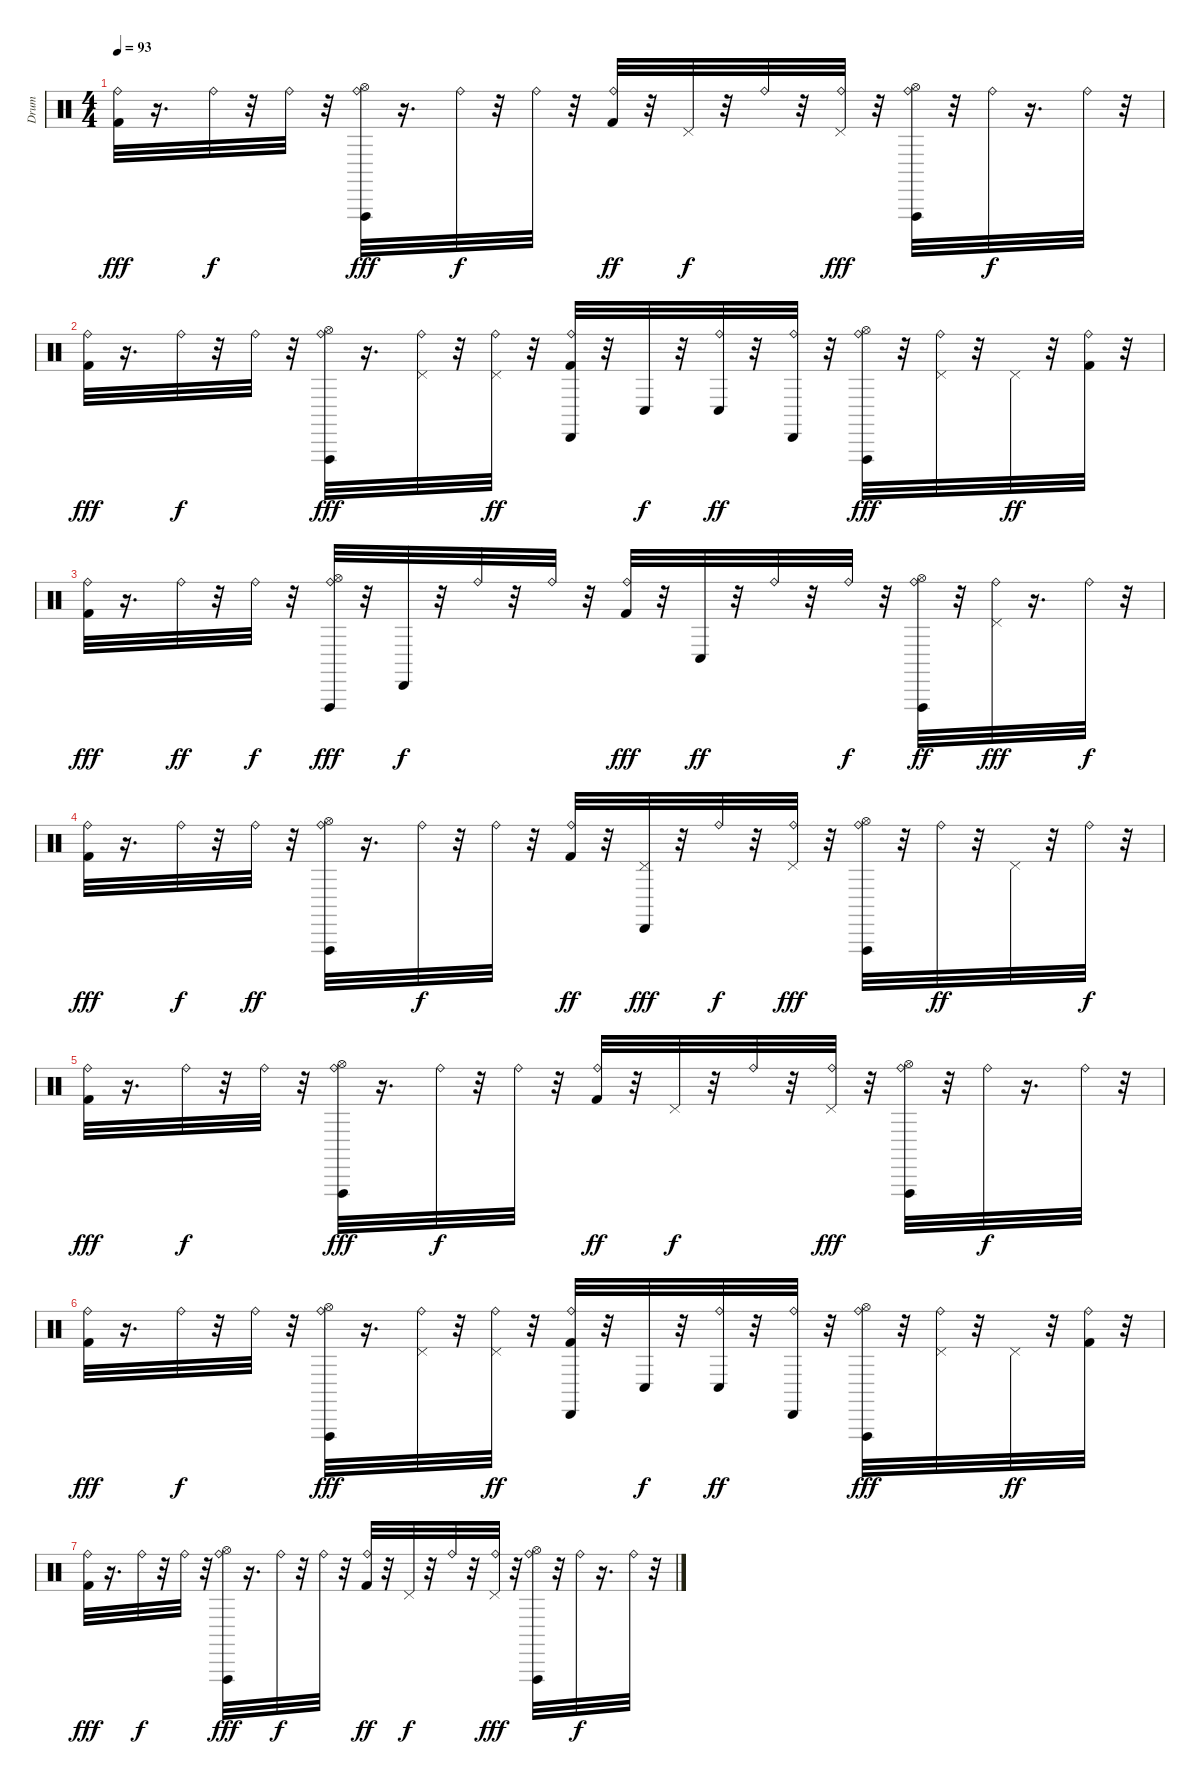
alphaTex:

\track ("Drum" "Drum") {instrument percussion}
\staff {score}
\articulation defaults
\ts (4 4)
\tempo 93
\clef neutral
\ks c
("Kick (hit) 2" "Ride (bell)").32{dy fff} r.16{d} "Ride (bell)".32{dy f} r.32 "Ride (bell)".32 r.32 ("Ride (bell)" "Vibraslap (hit)" "Hi-Hat (open)").32{dy fff} r.16{d} "Ride (bell)".32{dy f} r.32 "Ride (bell)".32 r.32 ("Kick (hit) 2" "Ride (bell)").32{dy ff} r.32 "Pedal Hi-Hat (hit)".32{dy f} r.32 "Ride (bell)".32 r.32 ("Ride (bell)" "Pedal Hi-Hat (hit)").32{dy fff} r.32 ("Ride (bell)" "Vibraslap (hit)" "Hi-Hat (open)").32 r.32 "Ride (bell)".32{dy f} r.16{d} "Ride (bell)".32 r.32 |
("Kick (hit) 2" "Ride (bell)").32{dy fff} r.16{d} "Ride (bell)".32{dy f} r.32 "Ride (bell)".32 r.32 ("Ride (bell)" "Vibraslap (hit)" "Hi-Hat (open)").32{dy fff} r.16{d} ("Ride (bell)" "Pedal Hi-Hat (hit)").32 r.32 ("Ride (bell)" "Pedal Hi-Hat (hit)").32{dy ff} r.32 ("Cabasa (hit)" "Kick (hit) 2" "Ride (bell)").32 r.32 "Conga low (hit)".32{dy f} r.32 ("Conga low (hit)" "Ride (bell)").32{dy ff} r.32 ("Cabasa (hit)" "Ride (bell)").32 r.32 ("Ride (bell)" "Vibraslap (hit)" "Hi-Hat (open)").32{dy fff} r.32 ("Ride (bell)" "Pedal Hi-Hat (hit)").32 r.32 "Pedal Hi-Hat (hit)".32{dy ff} r.32 ("Kick (hit) 2" "Ride (bell)").32 r.32 |
("Kick (hit) 2" "Ride (bell)").32{dy fff} r.16{d} "Ride (bell)".32{dy ff} r.32 "Ride (bell)".32{dy f} r.32 ("Ride (bell)" "Vibraslap (hit)" "Hi-Hat (open)").32{dy fff} r.32 "Cabasa (hit)".32{dy f} r.32 "Ride (bell)".32 r.32 "Ride (bell)".32 r.32 ("Kick (hit) 2" "Ride (bell)").32{dy fff} r.32 "Conga low (hit)".32{dy ff} r.32 "Ride (bell)".32 r.32 "Ride (bell)".32{dy f} r.32 ("Ride (bell)" "Vibraslap (hit)" "Hi-Hat (open)").32{dy ff} r.32 ("Ride (bell)" "Pedal Hi-Hat (hit)").32{dy fff} r.16{d} "Ride (bell)".32{dy f} r.32 |
("Kick (hit) 2" "Ride (bell)").32{dy fff} r.16{d} "Ride (bell)".32{dy f} r.32 "Ride (bell)".32{dy ff} r.32 ("Ride (bell)" "Vibraslap (hit)" "Hi-Hat (open)").32 r.16{d} "Ride (bell)".32{dy f} r.32 "Ride (bell)".32 r.32 ("Kick (hit) 2" "Ride (bell)").32{dy ff} r.32 ("Cabasa (hit)" "Pedal Hi-Hat (hit)").32{dy fff} r.32 "Ride (bell)".32{dy f} r.32 ("Ride (bell)" "Pedal Hi-Hat (hit)").32{dy fff} r.32 ("Ride (bell)" "Vibraslap (hit)" "Hi-Hat (open)").32 r.32 "Ride (bell)".32{dy ff} r.32 "Pedal Hi-Hat (hit)".32 r.32 "Ride (bell)".32{dy f} r.32 |
("Kick (hit) 2" "Ride (bell)").32{dy fff} r.16{d} "Ride (bell)".32{dy f} r.32 "Ride (bell)".32 r.32 ("Ride (bell)" "Vibraslap (hit)" "Hi-Hat (open)").32{dy fff} r.16{d} "Ride (bell)".32{dy f} r.32 "Ride (bell)".32 r.32 ("Kick (hit) 2" "Ride (bell)").32{dy ff} r.32 "Pedal Hi-Hat (hit)".32{dy f} r.32 "Ride (bell)".32 r.32 ("Ride (bell)" "Pedal Hi-Hat (hit)").32{dy fff} r.32 ("Ride (bell)" "Vibraslap (hit)" "Hi-Hat (open)").32 r.32 "Ride (bell)".32{dy f} r.16{d} "Ride (bell)".32 r.32 |
("Kick (hit) 2" "Ride (bell)").32{dy fff} r.16{d} "Ride (bell)".32{dy f} r.32 "Ride (bell)".32 r.32 ("Ride (bell)" "Vibraslap (hit)" "Hi-Hat (open)").32{dy fff} r.16{d} ("Ride (bell)" "Pedal Hi-Hat (hit)").32 r.32 ("Ride (bell)" "Pedal Hi-Hat (hit)").32{dy ff} r.32 ("Cabasa (hit)" "Kick (hit) 2" "Ride (bell)").32 r.32 "Conga low (hit)".32{dy f} r.32 ("Conga low (hit)" "Ride (bell)").32{dy ff} r.32 ("Cabasa (hit)" "Ride (bell)").32 r.32 ("Ride (bell)" "Vibraslap (hit)" "Hi-Hat (open)").32{dy fff} r.32 ("Ride (bell)" "Pedal Hi-Hat (hit)").32 r.32 "Pedal Hi-Hat (hit)".32{dy ff} r.32 ("Kick (hit) 2" "Ride (bell)").32 r.32 |
("Kick (hit) 2" "Ride (bell)").32{dy fff} r.16{d} "Ride (bell)".32{dy f} r.32 "Ride (bell)".32 r.32 ("Ride (bell)" "Vibraslap (hit)" "Hi-Hat (open)").32{dy fff} r.16{d} "Ride (bell)".32{dy f} r.32 "Ride (bell)".32 r.32 ("Kick (hit) 2" "Ride (bell)").32{dy ff} r.32 "Pedal Hi-Hat (hit)".32{dy f} r.32 "Ride (bell)".32 r.32 ("Ride (bell)" "Pedal Hi-Hat (hit)").32{dy fff} r.32 ("Ride (bell)" "Vibraslap (hit)" "Hi-Hat (open)").32 r.32 "Ride (bell)".32{dy f} r.16{d} "Ride (bell)".32 r.32
